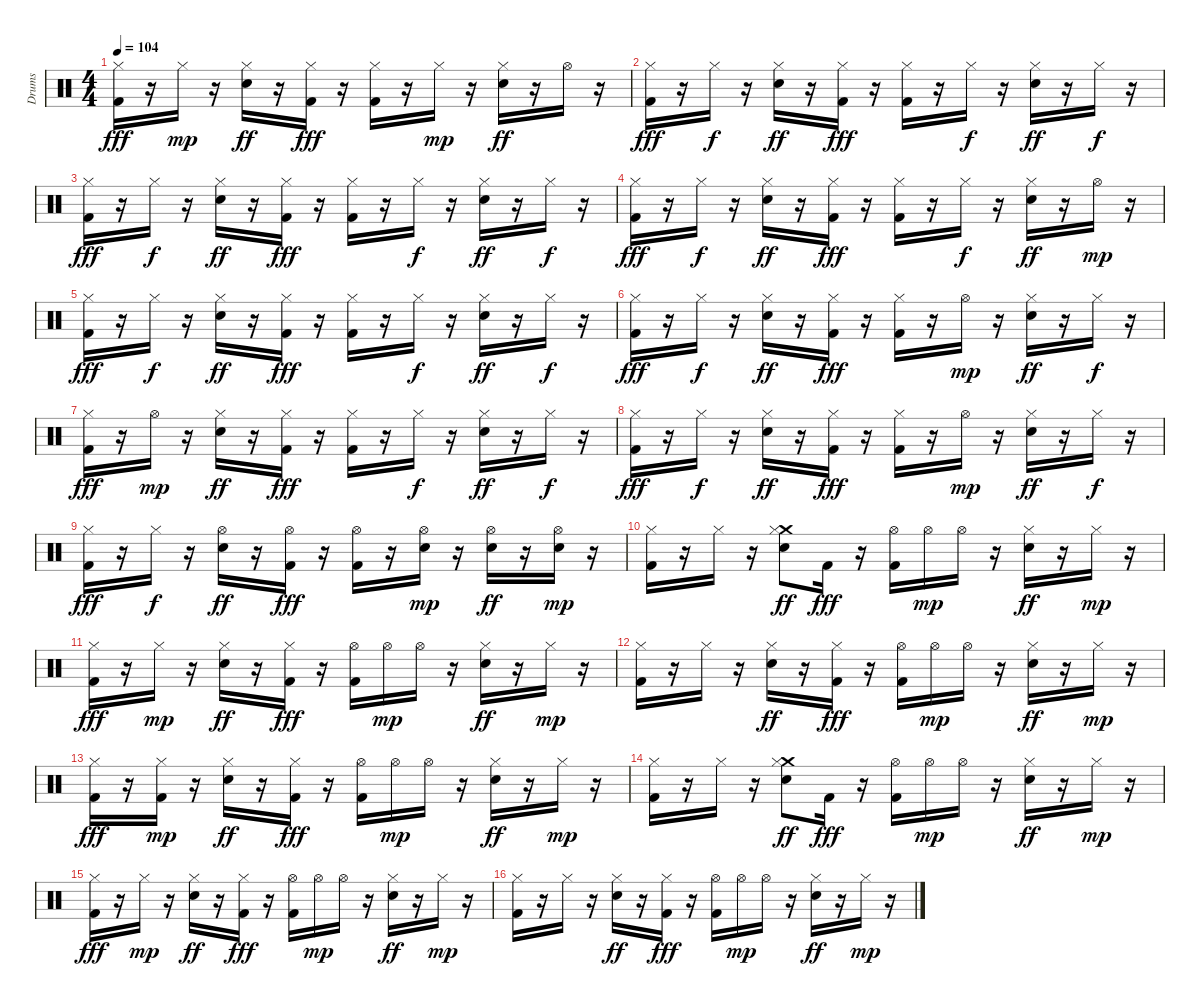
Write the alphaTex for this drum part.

\track ("Drums" "Drums") {instrument percussion}
\staff {score}
\articulation defaults
\ts (4 4)
\tempo 104
\clef neutral
\ks c
("Hi-Hat (closed)" "Kick (hit) 2").16{dy fff} r.16 "Hi-Hat (closed)".16{dy mp} r.16 ("Hi-Hat (closed)" "Snare (hit) 2").16{dy ff} r.16 ("Hi-Hat (closed)" "Kick (hit) 2").16{dy fff} r.16 ("Hi-Hat (closed)" "Kick (hit) 2").16 r.16 "Hi-Hat (closed)".16{dy mp} r.16 ("Hi-Hat (closed)" "Snare (hit) 2").16{dy ff} r.16 "Hi-Hat (open)".16 r.16 |
("Kick (hit) 2" "Hi-Hat (closed)").16{dy fff} r.16 "Hi-Hat (closed)".16{dy f} r.16 ("Hi-Hat (closed)" "Snare (hit) 2").16{dy ff} r.16 ("Hi-Hat (closed)" "Kick (hit) 2").16{dy fff} r.16 ("Hi-Hat (closed)" "Kick (hit) 2").16 r.16 "Hi-Hat (closed)".16{dy f} r.16 ("Hi-Hat (closed)" "Snare (hit) 2").16{dy ff} r.16 "Hi-Hat (closed)".16{dy f} r.16 |
("Hi-Hat (closed)" "Kick (hit) 2").16{dy fff} r.16 "Hi-Hat (closed)".16{dy f} r.16 ("Hi-Hat (closed)" "Snare (hit) 2").16{dy ff} r.16 ("Hi-Hat (closed)" "Kick (hit) 2").16{dy fff} r.16 ("Hi-Hat (closed)" "Kick (hit) 2").16 r.16 "Hi-Hat (closed)".16{dy f} r.16 ("Hi-Hat (closed)" "Snare (hit) 2").16{dy ff} r.16 "Hi-Hat (closed)".16{dy f} r.16 |
("Kick (hit) 2" "Hi-Hat (closed)").16{dy fff} r.16 "Hi-Hat (closed)".16{dy f} r.16 ("Hi-Hat (closed)" "Snare (hit) 2").16{dy ff} r.16 ("Hi-Hat (closed)" "Kick (hit) 2").16{dy fff} r.16 ("Hi-Hat (closed)" "Kick (hit) 2").16 r.16 "Hi-Hat (closed)".16{dy f} r.16 ("Hi-Hat (closed)" "Snare (hit) 2").16{dy ff} r.16 "Hi-Hat (open)".16{dy mp} r.16 |
("Hi-Hat (closed)" "Kick (hit) 2").16{dy fff} r.16 "Hi-Hat (closed)".16{dy f} r.16 ("Hi-Hat (closed)" "Snare (hit) 2").16{dy ff} r.16 ("Hi-Hat (closed)" "Kick (hit) 2").16{dy fff} r.16 ("Hi-Hat (closed)" "Kick (hit) 2").16 r.16 "Hi-Hat (closed)".16{dy f} r.16 ("Hi-Hat (closed)" "Snare (hit) 2").16{dy ff} r.16 "Hi-Hat (closed)".16{dy f} r.16 |
("Kick (hit) 2" "Hi-Hat (closed)").16{dy fff} r.16 "Hi-Hat (closed)".16{dy f} r.16 ("Hi-Hat (closed)" "Snare (hit) 2").16{dy ff} r.16 ("Hi-Hat (closed)" "Kick (hit) 2").16{dy fff} r.16 ("Hi-Hat (closed)" "Kick (hit) 2").16 r.16 "Hi-Hat (open)".16{dy mp} r.16 ("Hi-Hat (closed)" "Snare (hit) 2").16{dy ff} r.16 "Hi-Hat (closed)".16{dy f} r.16 |
("Hi-Hat (closed)" "Kick (hit) 2").16{dy fff} r.16 "Hi-Hat (open)".16{dy mp} r.16 ("Hi-Hat (closed)" "Snare (hit) 2").16{dy ff} r.16 ("Hi-Hat (closed)" "Kick (hit) 2").16{dy fff} r.16 ("Hi-Hat (closed)" "Kick (hit) 2").16 r.16 "Hi-Hat (closed)".16{dy f} r.16 ("Hi-Hat (closed)" "Snare (hit) 2").16{dy ff} r.16 "Hi-Hat (closed)".16{dy f} r.16 |
("Kick (hit) 2" "Hi-Hat (closed)").16{dy fff} r.16 "Hi-Hat (closed)".16{dy f} r.16 ("Hi-Hat (closed)" "Snare (hit) 2").16{dy ff} r.16 ("Hi-Hat (closed)" "Kick (hit) 2").16{dy fff} r.16 ("Hi-Hat (closed)" "Kick (hit) 2").16 r.16 "Hi-Hat (open)".16{dy mp} r.16 ("Hi-Hat (closed)" "Snare (hit) 2").16{dy ff} r.16 "Hi-Hat (closed)".16{dy f} r.16 |
("Hi-Hat (closed)" "Kick (hit) 2").16{dy fff} r.16 "Hi-Hat (closed)".16{dy f} r.16 ("Hi-Hat (open)" "Snare (hit) 2").16{dy ff} r.16 ("Hi-Hat (open)" "Kick (hit) 2").16{dy fff} r.16 ("Hi-Hat (open)" "Kick (hit) 2").16 r.16 ("Snare (hit) 2" "Hi-Hat (open)").16{dy mp} r.16 ("Hi-Hat (open)" "Snare (hit) 2").16{dy ff} r.16 ("Snare (hit) 2" "Hi-Hat (open)").16{dy mp} r.16 |
("Kick (hit) 2" "Hi-Hat (closed)").16 r.16 "Hi-Hat (closed)".16 r.16 ("Crash medium (hit)" "Hi-Hat (closed)" "Snare (hit) 2").8{dy ff} "Kick (hit) 2".16{dy fff} r.16 ("Hi-Hat (open)" "Kick (hit) 2").16 "Hi-Hat (open)".16{dy mp} "Hi-Hat (open)".16 r.16 ("Hi-Hat (closed)" "Snare (hit) 2").16{dy ff} r.16 "Hi-Hat (closed)".16{dy mp} r.16 |
("Hi-Hat (closed)" "Kick (hit) 2").16{dy fff} r.16 "Hi-Hat (closed)".16{dy mp} r.16 ("Hi-Hat (closed)" "Snare (hit) 2").16{dy ff} r.16 ("Hi-Hat (closed)" "Kick (hit) 2").16{dy fff} r.16 ("Hi-Hat (open)" "Kick (hit) 2").16 "Hi-Hat (open)".16{dy mp} "Hi-Hat (open)".16 r.16 ("Hi-Hat (closed)" "Snare (hit) 2").16{dy ff} r.16 "Hi-Hat (closed)".16{dy mp} r.16 |
("Kick (hit) 2" "Hi-Hat (closed)").16 r.16 "Hi-Hat (closed)".16 r.16 ("Hi-Hat (closed)" "Snare (hit) 2").16{dy ff} r.16 ("Hi-Hat (closed)" "Kick (hit) 2").16{dy fff} r.16 ("Hi-Hat (open)" "Kick (hit) 2").16 "Hi-Hat (open)".16{dy mp} "Hi-Hat (open)".16 r.16 ("Hi-Hat (closed)" "Snare (hit) 2").16{dy ff} r.16 "Hi-Hat (closed)".16{dy mp} r.16 |
("Hi-Hat (closed)" "Kick (hit) 2").16{dy fff} r.16 ("Kick (hit) 2" "Hi-Hat (closed)").16{dy mp} r.16 ("Hi-Hat (closed)" "Snare (hit) 2").16{dy ff} r.16 ("Hi-Hat (closed)" "Kick (hit) 2").16{dy fff} r.16 ("Hi-Hat (open)" "Kick (hit) 2").16 "Hi-Hat (open)".16{dy mp} "Hi-Hat (open)".16 r.16 ("Hi-Hat (closed)" "Snare (hit) 2").16{dy ff} r.16 "Hi-Hat (closed)".16{dy mp} r.16 |
("Kick (hit) 2" "Hi-Hat (closed)").16 r.16 "Hi-Hat (closed)".16 r.16 ("Crash medium (hit)" "Hi-Hat (closed)" "Snare (hit) 2").8{dy ff} "Kick (hit) 2".16{dy fff} r.16 ("Hi-Hat (open)" "Kick (hit) 2").16 "Hi-Hat (open)".16{dy mp} "Hi-Hat (open)".16 r.16 ("Hi-Hat (closed)" "Snare (hit) 2").16{dy ff} r.16 "Hi-Hat (closed)".16{dy mp} r.16 |
("Hi-Hat (closed)" "Kick (hit) 2").16{dy fff} r.16 "Hi-Hat (closed)".16{dy mp} r.16 ("Hi-Hat (closed)" "Snare (hit) 2").16{dy ff} r.16 ("Hi-Hat (closed)" "Kick (hit) 2").16{dy fff} r.16 ("Hi-Hat (open)" "Kick (hit) 2").16 "Hi-Hat (open)".16{dy mp} "Hi-Hat (open)".16 r.16 ("Hi-Hat (closed)" "Snare (hit) 2").16{dy ff} r.16 "Hi-Hat (closed)".16{dy mp} r.16 |
("Kick (hit) 2" "Hi-Hat (closed)").16 r.16 "Hi-Hat (closed)".16 r.16 ("Hi-Hat (closed)" "Snare (hit) 2").16{dy ff} r.16 ("Hi-Hat (closed)" "Kick (hit) 2").16{dy fff} r.16 ("Hi-Hat (open)" "Kick (hit) 2").16 "Hi-Hat (open)".16{dy mp} "Hi-Hat (open)".16 r.16 ("Hi-Hat (closed)" "Snare (hit) 2").16{dy ff} r.16 "Hi-Hat (closed)".16{dy mp} r.16
